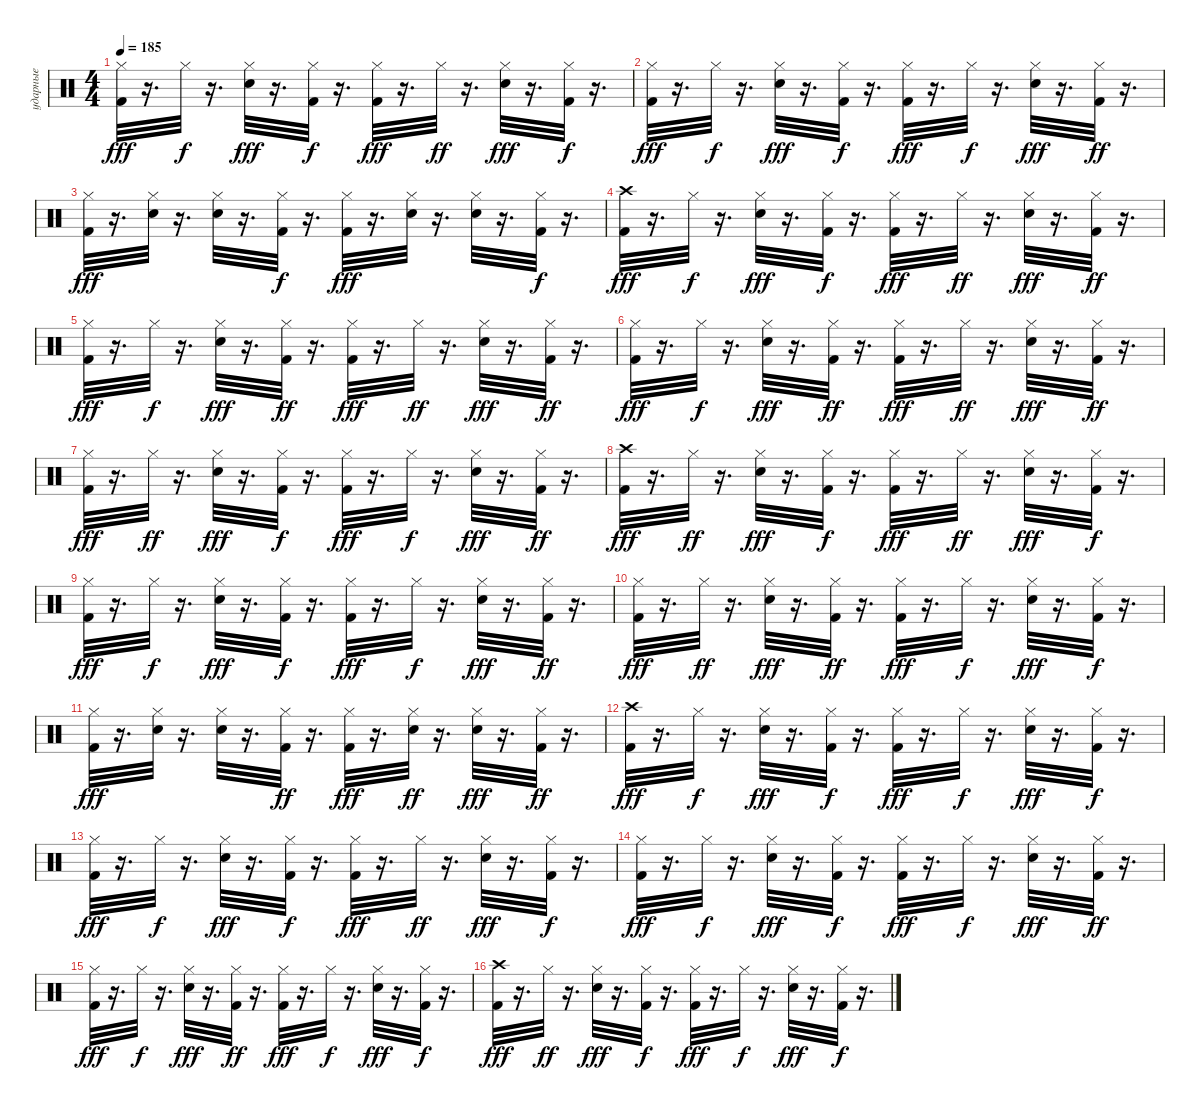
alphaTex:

\track ("ударные" "ударные") {instrument percussion}
\staff {score}
\articulation defaults
\ts (4 4)
\tempo 185
\clef neutral
\ks c
("Hi-Hat (closed)" "Kick (hit) 2").32{dy fff} r.16{d} "Hi-Hat (closed)".32{dy f} r.16{d} ("Hi-Hat (closed)" "Electric Snare (hit)").32{dy fff} r.16{d} ("Hi-Hat (closed)" "Kick (hit) 2").32{dy f} r.16{d} ("Hi-Hat (closed)" "Kick (hit) 2").32{dy fff} r.16{d} "Hi-Hat (closed)".32{dy ff} r.16{d} ("Hi-Hat (closed)" "Electric Snare (hit)").32{dy fff} r.16{d} ("Hi-Hat (closed)" "Kick (hit) 2").32{dy f} r.16{d} |
("Hi-Hat (closed)" "Kick (hit) 2").32{dy fff} r.16{d} "Hi-Hat (closed)".32{dy f} r.16{d} ("Hi-Hat (closed)" "Electric Snare (hit)").32{dy fff} r.16{d} ("Hi-Hat (closed)" "Kick (hit) 2").32{dy f} r.16{d} ("Hi-Hat (closed)" "Kick (hit) 2").32{dy fff} r.16{d} "Hi-Hat (closed)".32{dy f} r.16{d} ("Hi-Hat (closed)" "Electric Snare (hit)").32{dy fff} r.16{d} ("Hi-Hat (closed)" "Kick (hit) 2").32{dy ff} r.16{d} |
("Hi-Hat (closed)" "Kick (hit) 2").32{dy fff} r.16{d} ("Electric Snare (hit)" "Hi-Hat (closed)").32 r.16{d} ("Hi-Hat (closed)" "Electric Snare (hit)").32 r.16{d} ("Hi-Hat (closed)" "Kick (hit) 2").32{dy f} r.16{d} ("Hi-Hat (closed)" "Kick (hit) 2").32{dy fff} r.16{d} ("Electric Snare (hit)" "Hi-Hat (closed)").32 r.16{d} ("Hi-Hat (closed)" "Electric Snare (hit)").32 r.16{d} ("Hi-Hat (closed)" "Kick (hit) 2").32{dy f} r.16{d} |
("Crash high (hit)" "Kick (hit) 2").32{dy fff} r.16{d} "Hi-Hat (closed)".32{dy f} r.16{d} ("Hi-Hat (closed)" "Electric Snare (hit)").32{dy fff} r.16{d} ("Hi-Hat (closed)" "Kick (hit) 2").32{dy f} r.16{d} ("Hi-Hat (closed)" "Kick (hit) 2").32{dy fff} r.16{d} "Hi-Hat (closed)".32{dy ff} r.16{d} ("Hi-Hat (closed)" "Electric Snare (hit)").32{dy fff} r.16{d} ("Hi-Hat (closed)" "Kick (hit) 2").32{dy ff} r.16{d} |
("Hi-Hat (closed)" "Kick (hit) 2").32{dy fff} r.16{d} "Hi-Hat (closed)".32{dy f} r.16{d} ("Hi-Hat (closed)" "Electric Snare (hit)").32{dy fff} r.16{d} ("Hi-Hat (closed)" "Kick (hit) 2").32{dy ff} r.16{d} ("Hi-Hat (closed)" "Kick (hit) 2").32{dy fff} r.16{d} "Hi-Hat (closed)".32{dy ff} r.16{d} ("Hi-Hat (closed)" "Electric Snare (hit)").32{dy fff} r.16{d} ("Hi-Hat (closed)" "Kick (hit) 2").32{dy ff} r.16{d} |
("Hi-Hat (closed)" "Kick (hit) 2").32{dy fff} r.16{d} "Hi-Hat (closed)".32{dy f} r.16{d} ("Hi-Hat (closed)" "Electric Snare (hit)").32{dy fff} r.16{d} ("Hi-Hat (closed)" "Kick (hit) 2").32{dy ff} r.16{d} ("Hi-Hat (closed)" "Kick (hit) 2").32{dy fff} r.16{d} "Hi-Hat (closed)".32{dy ff} r.16{d} ("Hi-Hat (closed)" "Electric Snare (hit)").32{dy fff} r.16{d} ("Hi-Hat (closed)" "Kick (hit) 2").32{dy ff} r.16{d} |
("Hi-Hat (closed)" "Kick (hit) 2").32{dy fff} r.16{d} "Hi-Hat (closed)".32{dy ff} r.16{d} ("Hi-Hat (closed)" "Electric Snare (hit)").32{dy fff} r.16{d} ("Hi-Hat (closed)" "Kick (hit) 2").32{dy f} r.16{d} ("Hi-Hat (closed)" "Kick (hit) 2").32{dy fff} r.16{d} "Hi-Hat (closed)".32{dy f} r.16{d} ("Hi-Hat (closed)" "Electric Snare (hit)").32{dy fff} r.16{d} ("Hi-Hat (closed)" "Kick (hit) 2").32{dy ff} r.16{d} |
("Crash high (hit)" "Kick (hit) 2").32{dy fff} r.16{d} "Hi-Hat (closed)".32{dy ff} r.16{d} ("Hi-Hat (closed)" "Electric Snare (hit)").32{dy fff} r.16{d} ("Hi-Hat (closed)" "Kick (hit) 2").32{dy f} r.16{d} ("Hi-Hat (closed)" "Kick (hit) 2").32{dy fff} r.16{d} "Hi-Hat (closed)".32{dy ff} r.16{d} ("Hi-Hat (closed)" "Electric Snare (hit)").32{dy fff} r.16{d} ("Hi-Hat (closed)" "Kick (hit) 2").32{dy f} r.16{d} |
("Hi-Hat (closed)" "Kick (hit) 2").32{dy fff} r.16{d} "Hi-Hat (closed)".32{dy f} r.16{d} ("Hi-Hat (closed)" "Electric Snare (hit)").32{dy fff} r.16{d} ("Hi-Hat (closed)" "Kick (hit) 2").32{dy f} r.16{d} ("Hi-Hat (closed)" "Kick (hit) 2").32{dy fff} r.16{d} "Hi-Hat (closed)".32{dy f} r.16{d} ("Hi-Hat (closed)" "Electric Snare (hit)").32{dy fff} r.16{d} ("Hi-Hat (closed)" "Kick (hit) 2").32{dy ff} r.16{d} |
("Hi-Hat (closed)" "Kick (hit) 2").32{dy fff} r.16{d} "Hi-Hat (closed)".32{dy ff} r.16{d} ("Hi-Hat (closed)" "Electric Snare (hit)").32{dy fff} r.16{d} ("Hi-Hat (closed)" "Kick (hit) 2").32{dy ff} r.16{d} ("Hi-Hat (closed)" "Kick (hit) 2").32{dy fff} r.16{d} "Hi-Hat (closed)".32{dy f} r.16{d} ("Hi-Hat (closed)" "Electric Snare (hit)").32{dy fff} r.16{d} ("Hi-Hat (closed)" "Kick (hit) 2").32{dy f} r.16{d} |
("Hi-Hat (closed)" "Kick (hit) 2").32{dy fff} r.16{d} ("Electric Snare (hit)" "Hi-Hat (closed)").32 r.16{d} ("Hi-Hat (closed)" "Electric Snare (hit)").32 r.16{d} ("Hi-Hat (closed)" "Kick (hit) 2").32{dy ff} r.16{d} ("Hi-Hat (closed)" "Kick (hit) 2").32{dy fff} r.16{d} ("Electric Snare (hit)" "Hi-Hat (closed)").32{dy ff} r.16{d} ("Hi-Hat (closed)" "Electric Snare (hit)").32{dy fff} r.16{d} ("Hi-Hat (closed)" "Kick (hit) 2").32{dy ff} r.16{d} |
("Crash high (hit)" "Kick (hit) 2").32{dy fff} r.16{d} "Hi-Hat (closed)".32{dy f} r.16{d} ("Hi-Hat (closed)" "Electric Snare (hit)").32{dy fff} r.16{d} ("Hi-Hat (closed)" "Kick (hit) 2").32{dy f} r.16{d} ("Hi-Hat (closed)" "Kick (hit) 2").32{dy fff} r.16{d} "Hi-Hat (closed)".32{dy f} r.16{d} ("Hi-Hat (closed)" "Electric Snare (hit)").32{dy fff} r.16{d} ("Hi-Hat (closed)" "Kick (hit) 2").32{dy f} r.16{d} |
("Hi-Hat (closed)" "Kick (hit) 2").32{dy fff} r.16{d} "Hi-Hat (closed)".32{dy f} r.16{d} ("Hi-Hat (closed)" "Electric Snare (hit)").32{dy fff} r.16{d} ("Hi-Hat (closed)" "Kick (hit) 2").32{dy f} r.16{d} ("Hi-Hat (closed)" "Kick (hit) 2").32{dy fff} r.16{d} "Hi-Hat (closed)".32{dy ff} r.16{d} ("Hi-Hat (closed)" "Electric Snare (hit)").32{dy fff} r.16{d} ("Hi-Hat (closed)" "Kick (hit) 2").32{dy f} r.16{d} |
("Hi-Hat (closed)" "Kick (hit) 2").32{dy fff} r.16{d} "Hi-Hat (closed)".32{dy f} r.16{d} ("Hi-Hat (closed)" "Electric Snare (hit)").32{dy fff} r.16{d} ("Hi-Hat (closed)" "Kick (hit) 2").32{dy f} r.16{d} ("Hi-Hat (closed)" "Kick (hit) 2").32{dy fff} r.16{d} "Hi-Hat (closed)".32{dy f} r.16{d} ("Hi-Hat (closed)" "Electric Snare (hit)").32{dy fff} r.16{d} ("Hi-Hat (closed)" "Kick (hit) 2").32{dy ff} r.16{d} |
("Hi-Hat (closed)" "Kick (hit) 2").32{dy fff} r.16{d} "Hi-Hat (closed)".32{dy f} r.16{d} ("Hi-Hat (closed)" "Electric Snare (hit)").32{dy fff} r.16{d} ("Hi-Hat (closed)" "Kick (hit) 2").32{dy ff} r.16{d} ("Hi-Hat (closed)" "Kick (hit) 2").32{dy fff} r.16{d} "Hi-Hat (closed)".32{dy f} r.16{d} ("Hi-Hat (closed)" "Electric Snare (hit)").32{dy fff} r.16{d} ("Hi-Hat (closed)" "Kick (hit) 2").32{dy f} r.16{d} |
("Crash high (hit)" "Kick (hit) 2").32{dy fff} r.16{d} "Hi-Hat (closed)".32{dy ff} r.16{d} ("Hi-Hat (closed)" "Electric Snare (hit)").32{dy fff} r.16{d} ("Hi-Hat (closed)" "Kick (hit) 2").32{dy f} r.16{d} ("Hi-Hat (closed)" "Kick (hit) 2").32{dy fff} r.16{d} "Hi-Hat (closed)".32{dy f} r.16{d} ("Hi-Hat (closed)" "Electric Snare (hit)").32{dy fff} r.16{d} ("Hi-Hat (closed)" "Kick (hit) 2").32{dy f} r.16{d}
